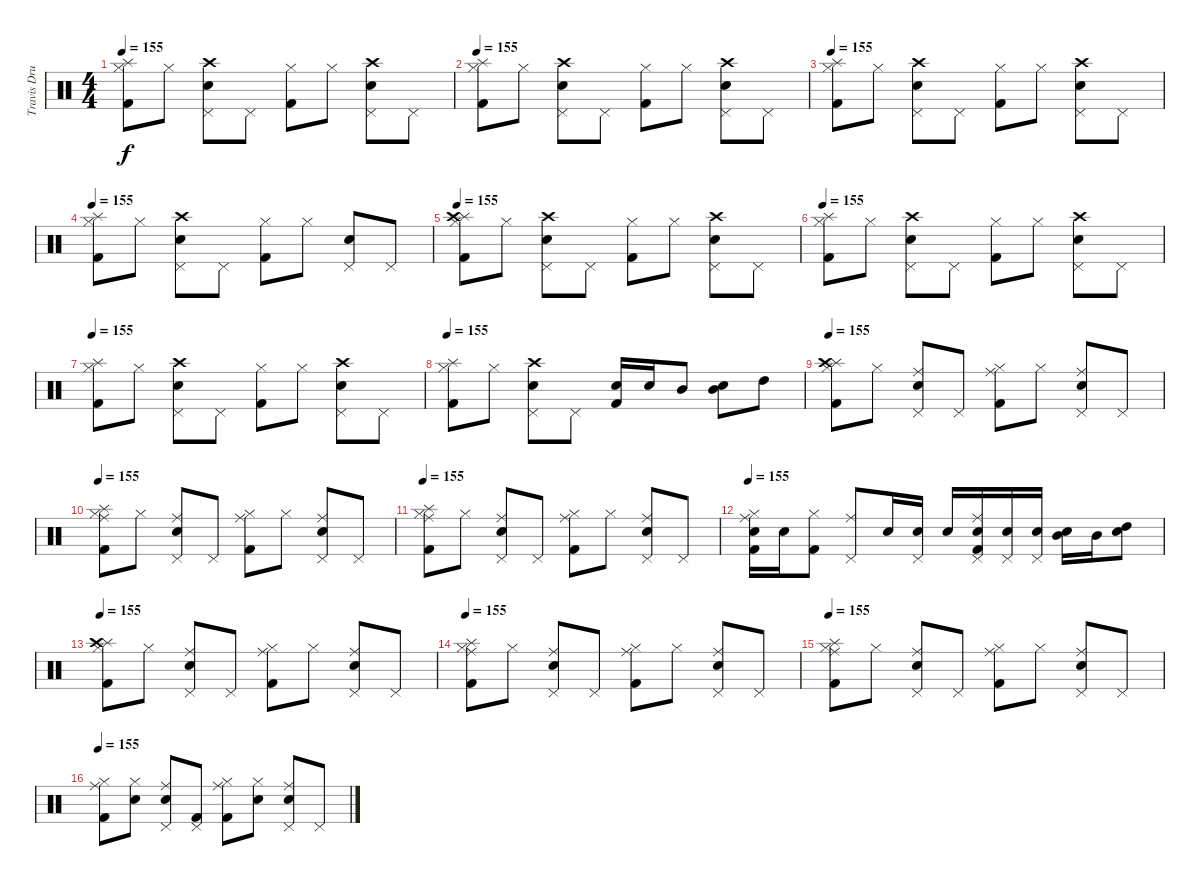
\track ("Travis Drums" "Travis Dru") {instrument percussion}
\staff {score}
\articulation defaults
\ts (4 4)
\tempo 155
\clef neutral
\ks c
("Splash (hit)" "Hi-Hat (closed)" "Kick (hit) 2").8{dy f} "Hi-Hat (closed)".8 ("Electric Snare (hit)" "Pedal Hi-Hat (hit)" "Crash high (hit)").8 "Pedal Hi-Hat (hit)".8 ("Hi-Hat (closed)" "Kick (hit) 2").8 "Hi-Hat (closed)".8 ("Electric Snare (hit)" "Pedal Hi-Hat (hit)" "Crash high (hit)").8 "Pedal Hi-Hat (hit)".8 |
\tempo 155
("Splash (hit)" "Hi-Hat (closed)" "Kick (hit) 2").8 "Hi-Hat (closed)".8 ("Electric Snare (hit)" "Pedal Hi-Hat (hit)" "Crash high (hit)").8 "Pedal Hi-Hat (hit)".8 ("Hi-Hat (closed)" "Kick (hit) 2").8 "Hi-Hat (closed)".8 ("Electric Snare (hit)" "Pedal Hi-Hat (hit)" "Crash high (hit)").8 "Pedal Hi-Hat (hit)".8 |
\tempo 155
("Splash (hit)" "Hi-Hat (closed)" "Kick (hit) 2").8 "Hi-Hat (closed)".8 ("Electric Snare (hit)" "Pedal Hi-Hat (hit)" "Crash high (hit)").8 "Pedal Hi-Hat (hit)".8 ("Hi-Hat (closed)" "Kick (hit) 2").8 "Hi-Hat (closed)".8 ("Electric Snare (hit)" "Pedal Hi-Hat (hit)" "Crash high (hit)").8 "Pedal Hi-Hat (hit)".8 |
\tempo 155
("Splash (hit)" "Hi-Hat (closed)" "Kick (hit) 2").8 "Hi-Hat (closed)".8 ("Electric Snare (hit)" "Pedal Hi-Hat (hit)" "Crash high (hit)").8 "Pedal Hi-Hat (hit)".8 ("Hi-Hat (closed)" "Kick (hit) 2").8 "Hi-Hat (closed)".8 ("Electric Snare (hit)" "Pedal Hi-Hat (hit)").8 "Pedal Hi-Hat (hit)".8 |
\tempo 155
("Splash (hit)" "Hi-Hat (closed)" "Kick (hit) 2" "Crash high (hit)").8 "Hi-Hat (closed)".8 ("Electric Snare (hit)" "Pedal Hi-Hat (hit)" "Crash high (hit)").8 "Pedal Hi-Hat (hit)".8 ("Hi-Hat (closed)" "Kick (hit) 2").8 "Hi-Hat (closed)".8 ("Electric Snare (hit)" "Pedal Hi-Hat (hit)" "Crash high (hit)").8 "Pedal Hi-Hat (hit)".8 |
\tempo 155
("Splash (hit)" "Hi-Hat (closed)" "Kick (hit) 2").8 "Hi-Hat (closed)".8 ("Electric Snare (hit)" "Pedal Hi-Hat (hit)" "Crash high (hit)").8 "Pedal Hi-Hat (hit)".8 ("Hi-Hat (closed)" "Kick (hit) 2").8 "Hi-Hat (closed)".8 ("Electric Snare (hit)" "Pedal Hi-Hat (hit)" "Crash high (hit)").8 "Pedal Hi-Hat (hit)".8 |
\tempo 155
("Splash (hit)" "Hi-Hat (closed)" "Kick (hit) 2").8 "Hi-Hat (closed)".8 ("Electric Snare (hit)" "Pedal Hi-Hat (hit)" "Crash high (hit)").8 "Pedal Hi-Hat (hit)".8 ("Hi-Hat (closed)" "Kick (hit) 2").8 "Hi-Hat (closed)".8 ("Electric Snare (hit)" "Pedal Hi-Hat (hit)" "Crash high (hit)").8 "Pedal Hi-Hat (hit)".8 |
\tempo 155
("Splash (hit)" "Hi-Hat (closed)" "Kick (hit) 2").8 "Hi-Hat (closed)".8 ("Electric Snare (hit)" "Pedal Hi-Hat (hit)" "Crash high (hit)").8 "Pedal Hi-Hat (hit)".8 ("Electric Snare (hit)" "Kick (hit) 2").16 "Electric Snare (hit)".16 "Mid Tom (hit)".8 ("Electric Snare (hit)" "Mid Tom (hit)").8 "High Tom (hit)".8 |
\tempo 155
("Splash (hit)" "Hi-Hat (closed)" "Kick (hit) 2" "Crash high (hit)").8 "Hi-Hat (closed)".8 ("Electric Snare (hit)" "Pedal Hi-Hat (hit)" "Ride (middle)").8 "Pedal Hi-Hat (hit)".8 ("Hi-Hat (closed)" "Kick (hit) 2" "Ride (middle)").8 "Hi-Hat (closed)".8 ("Electric Snare (hit)" "Pedal Hi-Hat (hit)" "Ride (middle)").8 "Pedal Hi-Hat (hit)".8 |
\tempo 155
("Splash (hit)" "Hi-Hat (closed)" "Kick (hit) 2" "Ride (middle)").8 "Hi-Hat (closed)".8 ("Electric Snare (hit)" "Pedal Hi-Hat (hit)" "Ride (middle)").8 "Pedal Hi-Hat (hit)".8 ("Hi-Hat (closed)" "Kick (hit) 2" "Ride (middle)").8 "Hi-Hat (closed)".8 ("Electric Snare (hit)" "Pedal Hi-Hat (hit)" "Ride (middle)").8 "Pedal Hi-Hat (hit)".8 |
\tempo 155
("Splash (hit)" "Hi-Hat (closed)" "Kick (hit) 2" "Ride (middle)").8 "Hi-Hat (closed)".8 ("Electric Snare (hit)" "Pedal Hi-Hat (hit)" "Ride (middle)").8 "Pedal Hi-Hat (hit)".8 ("Hi-Hat (closed)" "Kick (hit) 2" "Ride (middle)").8 "Hi-Hat (closed)".8 ("Electric Snare (hit)" "Pedal Hi-Hat (hit)" "Ride (middle)").8 "Pedal Hi-Hat (hit)".8 |
\tempo 155
("Electric Snare (hit)" "Hi-Hat (closed)" "Kick (hit) 2" "Ride (middle)").16 "Electric Snare (hit)".16 ("Hi-Hat (closed)" "Kick (hit) 2").8 ("Pedal Hi-Hat (hit)" "Ride (middle)").8 "Electric Snare (hit)".16 ("Electric Snare (hit)" "Pedal Hi-Hat (hit)").16 "Electric Snare (hit)".16 ("Electric Snare (hit)" "Pedal Hi-Hat (hit)" "Kick (hit) 2" "Ride (middle)").16 ("Snare (hit) 2" "Pedal Hi-Hat (hit)").16 ("Snare (hit) 2" "Pedal Hi-Hat (hit)").16 ("Electric Snare (hit)" "Mid Tom (hit)").16 "Mid Tom (hit)".16 ("Electric Snare (hit)" "High Tom (hit)").8 |
\tempo 155
("Splash (hit)" "Hi-Hat (closed)" "Kick (hit) 2" "Crash high (hit)").8 "Hi-Hat (closed)".8 ("Electric Snare (hit)" "Pedal Hi-Hat (hit)" "Ride (middle)").8 "Pedal Hi-Hat (hit)".8 ("Hi-Hat (closed)" "Kick (hit) 2" "Ride (middle)").8 "Hi-Hat (closed)".8 ("Electric Snare (hit)" "Pedal Hi-Hat (hit)" "Ride (middle)").8 "Pedal Hi-Hat (hit)".8 |
\tempo 155
("Splash (hit)" "Hi-Hat (closed)" "Kick (hit) 2" "Ride (middle)").8 "Hi-Hat (closed)".8 ("Electric Snare (hit)" "Pedal Hi-Hat (hit)" "Ride (middle)").8 "Pedal Hi-Hat (hit)".8 ("Hi-Hat (closed)" "Kick (hit) 2" "Ride (middle)").8 "Hi-Hat (closed)".8 ("Electric Snare (hit)" "Pedal Hi-Hat (hit)" "Ride (middle)").8 "Pedal Hi-Hat (hit)".8 |
\tempo 155
("Splash (hit)" "Hi-Hat (closed)" "Kick (hit) 2" "Ride (middle)").8 "Hi-Hat (closed)".8 ("Electric Snare (hit)" "Pedal Hi-Hat (hit)" "Ride (middle)").8 "Pedal Hi-Hat (hit)".8 ("Hi-Hat (closed)" "Kick (hit) 2" "Ride (middle)").8 "Hi-Hat (closed)".8 ("Electric Snare (hit)" "Pedal Hi-Hat (hit)" "Ride (middle)").8 "Pedal Hi-Hat (hit)".8 |
\tempo 155
("Hi-Hat (closed)" "Kick (hit) 2" "Ride (middle)").8 ("Electric Snare (hit)" "Hi-Hat (closed)").8 ("Electric Snare (hit)" "Pedal Hi-Hat (hit)" "Ride (middle)").8 ("Pedal Hi-Hat (hit)" "Kick (hit) 2").8 ("Hi-Hat (closed)" "Kick (hit) 2" "Ride (middle)").8 ("Electric Snare (hit)" "Hi-Hat (closed)").8 ("Electric Snare (hit)" "Pedal Hi-Hat (hit)" "Ride (middle)").8 "Pedal Hi-Hat (hit)".8
